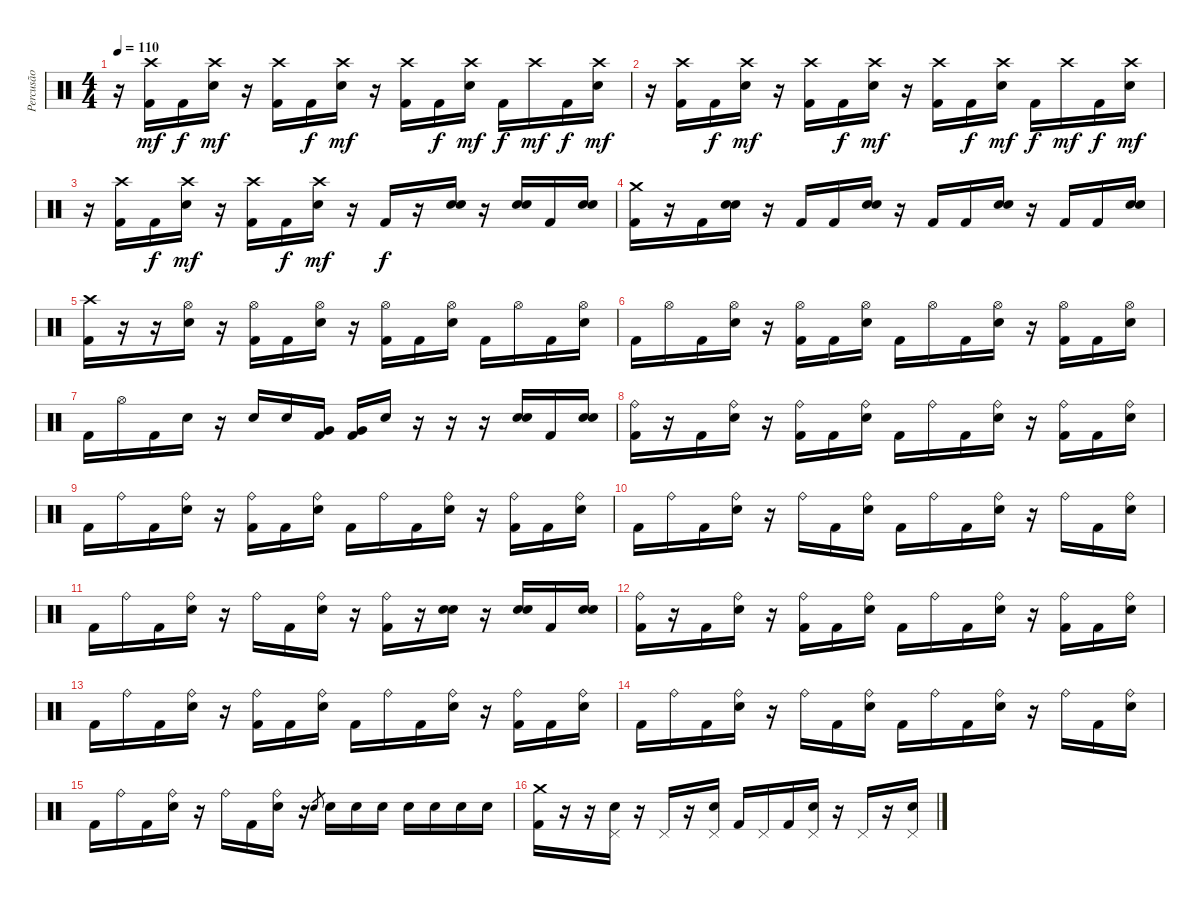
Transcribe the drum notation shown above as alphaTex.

\track ("Percusão" "Percusão") {instrument percussion}
\staff {score}
\articulation defaults
\ts (4 4)
\tempo 110
\clef neutral
\ks c
r.16{dy mf} ("Crash high (hit)" "Kick (hit) 2").16 "Kick (hit) 2".16{dy f} ("Crash high (hit)" "Snare (hit) 2").16{dy mf} r.16 ("Crash high (hit)" "Kick (hit) 2").16 "Kick (hit) 2".16{dy f} ("Crash high (hit)" "Snare (hit) 2").16{dy mf} r.16 ("Crash high (hit)" "Kick (hit) 2").16 "Kick (hit) 2".16{dy f} ("Crash high (hit)" "Snare (hit) 2").16{dy mf} "Kick (hit) 2".16{dy f} "Crash high (hit)".16{dy mf} "Kick (hit) 2".16{dy f} ("Crash high (hit)" "Snare (hit) 2").16{dy mf} |
r.16 ("Crash high (hit)" "Kick (hit) 2").16 "Kick (hit) 2".16{dy f} ("Crash high (hit)" "Snare (hit) 2").16{dy mf} r.16 ("Crash high (hit)" "Kick (hit) 2").16 "Kick (hit) 2".16{dy f} ("Crash high (hit)" "Snare (hit) 2").16{dy mf} r.16 ("Crash high (hit)" "Kick (hit) 2").16 "Kick (hit) 2".16{dy f} ("Crash high (hit)" "Snare (hit) 2").16{dy mf} "Kick (hit) 2".16{dy f} "Crash high (hit)".16{dy mf} "Kick (hit) 2".16{dy f} ("Crash high (hit)" "Snare (hit) 2").16{dy mf} |
r.16 ("Crash high (hit)" "Kick (hit) 2").16 "Kick (hit) 2".16{dy f} ("Crash high (hit)" "Snare (hit) 2").16{dy mf} r.16 ("Crash high (hit)" "Kick (hit) 2").16 "Kick (hit) 2".16{dy f} ("Crash high (hit)" "Snare (hit) 2").16{dy mf} r.16 "Kick (hit) 2".16{dy f} r.16 ("Snare (hit) 2" "Snare (hit) 2").16 r.16 ("Snare (hit) 2" "Snare (hit) 2").16 "Kick (hit) 2".16 ("Snare (hit) 2" "Snare (hit) 2").16 |
("Crash medium (hit)" "Kick (hit) 2").16 r.16 "Kick (hit) 2".16 ("Snare (hit) 2" "Snare (hit) 2").16 r.16 "Kick (hit) 2".16 "Kick (hit) 2".16 ("Snare (hit) 2" "Snare (hit) 2").16 r.16 "Kick (hit) 2".16 "Kick (hit) 2".16 ("Snare (hit) 2" "Snare (hit) 2").16 r.16 "Kick (hit) 2".16 "Kick (hit) 2".16 ("Snare (hit) 2" "Snare (hit) 2").16 |
("Crash high (hit)" "Kick (hit) 2").16 r.16 r.16 ("Hi-Hat (open)" "Snare (hit) 2").16 r.16 ("Hi-Hat (open)" "Kick (hit) 2").16 "Kick (hit) 2".16 ("Hi-Hat (open)" "Snare (hit) 2").16 r.16 ("Hi-Hat (open)" "Kick (hit) 2").16 "Kick (hit) 2".16 ("Hi-Hat (open)" "Snare (hit) 2").16 "Kick (hit) 2".16 "Hi-Hat (open)".16 "Kick (hit) 2".16 ("Hi-Hat (open)" "Snare (hit) 2").16 |
"Kick (hit) 2".16 "Hi-Hat (open)".16 "Kick (hit) 2".16 ("Hi-Hat (open)" "Snare (hit) 2").16 r.16 ("Hi-Hat (open)" "Kick (hit) 2").16 "Kick (hit) 2".16 ("Hi-Hat (open)" "Snare (hit) 2").16 "Kick (hit) 2".16 "Hi-Hat (open)".16 "Kick (hit) 2".16 ("Hi-Hat (open)" "Snare (hit) 2").16 r.16 ("Hi-Hat (open)" "Kick (hit) 2").16 "Kick (hit) 2".16 ("Hi-Hat (open)" "Snare (hit) 2").16 |
"Kick (hit) 2".16 "Hi-Hat (open)".16 "Kick (hit) 2".16 "Snare (hit) 2".16 r.16 "Snare (hit) 2".16 "Snare (hit) 2".16 ("Very Low Tom (hit)" "Kick (hit) 2").16 ("Very Low Tom (hit)" "Kick (hit) 2").16 "Snare (hit) 2".16 r.16 r.16 r.16 ("Snare (hit) 2" "Snare (hit) 2").16 "Kick (hit) 2".16 ("Snare (hit) 2" "Snare (hit) 2").16 |
("Ride (bell)" "Kick (hit) 2").16 r.16 "Kick (hit) 2".16 ("Ride (bell)" "Snare (hit) 2").16 r.16 ("Ride (bell)" "Kick (hit) 2").16 "Kick (hit) 2".16 ("Ride (bell)" "Snare (hit) 2").16 "Kick (hit) 2".16 "Ride (bell)".16 "Kick (hit) 2".16 ("Ride (bell)" "Snare (hit) 2").16 r.16 ("Ride (bell)" "Kick (hit) 2").16 "Kick (hit) 2".16 ("Ride (bell)" "Snare (hit) 2").16 |
"Kick (hit) 2".16 "Ride (bell)".16 "Kick (hit) 2".16 ("Ride (bell)" "Snare (hit) 2").16 r.16 ("Ride (bell)" "Kick (hit) 2").16 "Kick (hit) 2".16 ("Ride (bell)" "Snare (hit) 2").16 "Kick (hit) 2".16 "Ride (bell)".16 "Kick (hit) 2".16 ("Ride (bell)" "Snare (hit) 2").16 r.16 ("Ride (bell)" "Kick (hit) 2").16 "Kick (hit) 2".16 ("Ride (bell)" "Snare (hit) 2").16 |
"Kick (hit) 2".16 "Ride (bell)".16 "Kick (hit) 2".16 ("Ride (bell)" "Snare (hit) 2").16 r.16 "Ride (bell)".16 "Kick (hit) 2".16 ("Ride (bell)" "Snare (hit) 2").16 "Kick (hit) 2".16 "Ride (bell)".16 "Kick (hit) 2".16 ("Ride (bell)" "Snare (hit) 2").16 r.16 "Ride (bell)".16 "Kick (hit) 2".16 ("Ride (bell)" "Snare (hit) 2").16 |
"Kick (hit) 2".16 "Ride (bell)".16 "Kick (hit) 2".16 ("Ride (bell)" "Snare (hit) 2").16 r.16 "Ride (bell)".16 "Kick (hit) 2".16 ("Ride (bell)" "Snare (hit) 2").16 r.16 ("Ride (bell)" "Kick (hit) 2").16 r.16 ("Snare (hit) 2" "Snare (hit) 2").16 r.16 ("Snare (hit) 2" "Snare (hit) 2").16 "Kick (hit) 2".16 ("Snare (hit) 2" "Snare (hit) 2").16 |
("Ride (bell)" "Kick (hit) 2").16 r.16 "Kick (hit) 2".16 ("Ride (bell)" "Snare (hit) 2").16 r.16 ("Ride (bell)" "Kick (hit) 2").16 "Kick (hit) 2".16 ("Ride (bell)" "Snare (hit) 2").16 "Kick (hit) 2".16 "Ride (bell)".16 "Kick (hit) 2".16 ("Ride (bell)" "Snare (hit) 2").16 r.16 ("Ride (bell)" "Kick (hit) 2").16 "Kick (hit) 2".16 ("Ride (bell)" "Snare (hit) 2").16 |
"Kick (hit) 2".16 "Ride (bell)".16 "Kick (hit) 2".16 ("Ride (bell)" "Snare (hit) 2").16 r.16 ("Ride (bell)" "Kick (hit) 2").16 "Kick (hit) 2".16 ("Ride (bell)" "Snare (hit) 2").16 "Kick (hit) 2".16 "Ride (bell)".16 "Kick (hit) 2".16 ("Ride (bell)" "Snare (hit) 2").16 r.16 ("Ride (bell)" "Kick (hit) 2").16 "Kick (hit) 2".16 ("Ride (bell)" "Snare (hit) 2").16 |
"Kick (hit) 2".16 "Ride (bell)".16 "Kick (hit) 2".16 ("Ride (bell)" "Snare (hit) 2").16 r.16 "Ride (bell)".16 "Kick (hit) 2".16 ("Ride (bell)" "Snare (hit) 2").16 "Kick (hit) 2".16 "Ride (bell)".16 "Kick (hit) 2".16 ("Ride (bell)" "Snare (hit) 2").16 r.16 "Ride (bell)".16 "Kick (hit) 2".16 ("Ride (bell)" "Snare (hit) 2").16 |
"Kick (hit) 2".16 "Ride (bell)".16 "Kick (hit) 2".16 ("Ride (bell)" "Snare (hit) 2").16 r.16 "Ride (bell)".16 "Kick (hit) 2".16 ("Ride (bell)" "Snare (hit) 2").16 r.16 "Snare (hit) 2".8{gr} "Snare (hit) 2".16 "Snare (hit) 2".16 "Snare (hit) 2".16 "Snare (hit) 2".16 "Snare (hit) 2".16 "Snare (hit) 2".16 "Snare (hit) 2".16 |
("Crash medium (hit)" "Kick (hit) 2").16 r.16 r.16 ("Pedal Hi-Hat (hit)" "Snare (hit) 2").16 r.16 "Pedal Hi-Hat (hit)".16 r.16 ("Pedal Hi-Hat (hit)" "Snare (hit) 2").16 "Kick (hit) 2".16 "Pedal Hi-Hat (hit)".16 "Kick (hit) 2".16 ("Pedal Hi-Hat (hit)" "Snare (hit) 2").16 r.16 "Pedal Hi-Hat (hit)".16 r.16 ("Pedal Hi-Hat (hit)" "Snare (hit) 2").16
